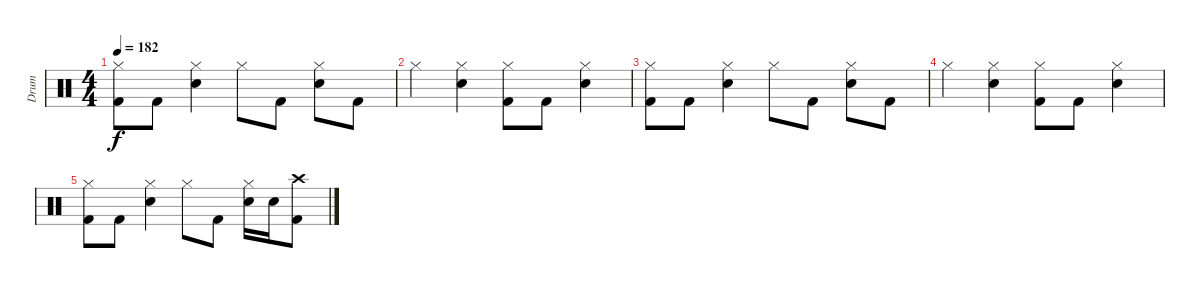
\track ("Drum" "Drum") {instrument percussion}
\staff {score}
\articulation defaults
\ts (4 4)
\tempo 182
\clef neutral
\ks c
("Hi-Hat (closed)" "Kick (hit) 2").8{dy f} "Kick (hit) 2".8 ("Hi-Hat (closed)" "Electric Snare (hit)").4 "Hi-Hat (closed)".8 "Kick (hit) 2".8 ("Hi-Hat (closed)" "Electric Snare (hit)").8 "Kick (hit) 2".8 |
"Hi-Hat (closed)".4 ("Hi-Hat (closed)" "Electric Snare (hit)").4 ("Hi-Hat (closed)" "Kick (hit) 2").8 "Kick (hit) 2".8 ("Hi-Hat (closed)" "Electric Snare (hit)").4 |
("Hi-Hat (closed)" "Kick (hit) 2").8 "Kick (hit) 2".8 ("Hi-Hat (closed)" "Electric Snare (hit)").4 "Hi-Hat (closed)".8 "Kick (hit) 2".8 ("Hi-Hat (closed)" "Electric Snare (hit)").8 "Kick (hit) 2".8 |
"Hi-Hat (closed)".4 ("Hi-Hat (closed)" "Electric Snare (hit)").4 ("Hi-Hat (closed)" "Kick (hit) 2").8 "Kick (hit) 2".8 ("Hi-Hat (closed)" "Electric Snare (hit)").4 |
("Hi-Hat (closed)" "Kick (hit) 2").8 "Kick (hit) 2".8 ("Hi-Hat (closed)" "Electric Snare (hit)").4 "Hi-Hat (closed)".8 "Kick (hit) 2".8 ("Hi-Hat (closed)" "Electric Snare (hit)").16 "Electric Snare (hit)".16 ("Crash high (hit)" "Kick (hit) 2").8
